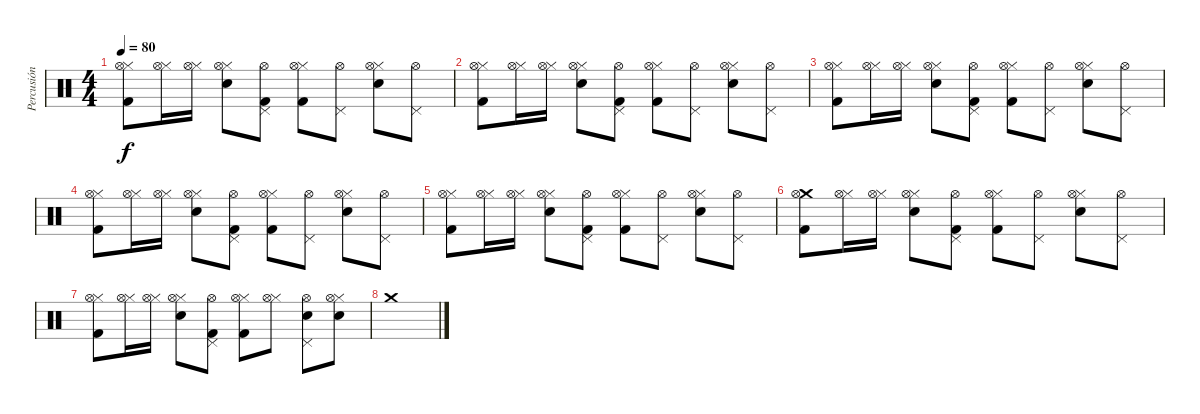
\track ("Percusión" "Percusión") {instrument percussion}
\staff {score}
\articulation defaults
\ts (4 4)
\tempo 80
\clef neutral
\ks c
("Hi-Hat (closed)" "Hi-Hat (open)" "Kick (hit) 2").8{dy f} ("Hi-Hat (closed)" "Hi-Hat (open)").16 ("Hi-Hat (closed)" "Hi-Hat (open)").16 ("Hi-Hat (closed)" "Hi-Hat (open)" "Snare (hit) 2").8 ("Pedal Hi-Hat (hit)" "Hi-Hat (open)" "Kick (hit) 2").8 ("Hi-Hat (closed)" "Hi-Hat (open)" "Kick (hit) 2").8 ("Pedal Hi-Hat (hit)" "Hi-Hat (open)").8 ("Hi-Hat (closed)" "Hi-Hat (open)" "Snare (hit) 2").8 ("Pedal Hi-Hat (hit)" "Hi-Hat (open)").8 |
("Hi-Hat (closed)" "Hi-Hat (open)" "Kick (hit) 2").8 ("Hi-Hat (closed)" "Hi-Hat (open)").16 ("Hi-Hat (closed)" "Hi-Hat (open)").16 ("Hi-Hat (closed)" "Hi-Hat (open)" "Snare (hit) 2").8 ("Pedal Hi-Hat (hit)" "Hi-Hat (open)" "Kick (hit) 2").8 ("Hi-Hat (closed)" "Hi-Hat (open)" "Kick (hit) 2").8 ("Pedal Hi-Hat (hit)" "Hi-Hat (open)").8 ("Hi-Hat (closed)" "Hi-Hat (open)" "Snare (hit) 2").8 ("Pedal Hi-Hat (hit)" "Hi-Hat (open)").8 |
("Hi-Hat (closed)" "Hi-Hat (open)" "Kick (hit) 2").8 ("Hi-Hat (closed)" "Hi-Hat (open)").16 ("Hi-Hat (closed)" "Hi-Hat (open)").16 ("Hi-Hat (closed)" "Hi-Hat (open)" "Snare (hit) 2").8 ("Pedal Hi-Hat (hit)" "Hi-Hat (open)" "Kick (hit) 2").8 ("Hi-Hat (closed)" "Hi-Hat (open)" "Kick (hit) 2").8 ("Pedal Hi-Hat (hit)" "Hi-Hat (open)").8 ("Hi-Hat (closed)" "Hi-Hat (open)" "Snare (hit) 2").8 ("Pedal Hi-Hat (hit)" "Hi-Hat (open)").8 |
("Hi-Hat (closed)" "Hi-Hat (open)" "Kick (hit) 2").8 ("Hi-Hat (closed)" "Hi-Hat (open)").16 ("Hi-Hat (closed)" "Hi-Hat (open)").16 ("Hi-Hat (closed)" "Hi-Hat (open)" "Snare (hit) 2").8 ("Pedal Hi-Hat (hit)" "Hi-Hat (open)" "Kick (hit) 2").8 ("Hi-Hat (closed)" "Hi-Hat (open)" "Kick (hit) 2").8 ("Pedal Hi-Hat (hit)" "Hi-Hat (open)").8 ("Hi-Hat (closed)" "Hi-Hat (open)" "Snare (hit) 2").8 ("Pedal Hi-Hat (hit)" "Hi-Hat (open)").8 |
("Hi-Hat (closed)" "Hi-Hat (open)" "Kick (hit) 2").8 ("Hi-Hat (closed)" "Hi-Hat (open)").16 ("Hi-Hat (closed)" "Hi-Hat (open)").16 ("Hi-Hat (closed)" "Hi-Hat (open)" "Snare (hit) 2").8 ("Pedal Hi-Hat (hit)" "Hi-Hat (open)" "Kick (hit) 2").8 ("Hi-Hat (closed)" "Hi-Hat (open)" "Kick (hit) 2").8 ("Pedal Hi-Hat (hit)" "Hi-Hat (open)").8 ("Hi-Hat (closed)" "Hi-Hat (open)" "Snare (hit) 2").8 ("Pedal Hi-Hat (hit)" "Hi-Hat (open)").8 |
("Crash medium (hit)" "Hi-Hat (open)" "Kick (hit) 2").8 ("Hi-Hat (closed)" "Hi-Hat (open)").16 ("Hi-Hat (closed)" "Hi-Hat (open)").16 ("Hi-Hat (closed)" "Hi-Hat (open)" "Snare (hit) 2").8 ("Pedal Hi-Hat (hit)" "Hi-Hat (open)" "Kick (hit) 2").8 ("Hi-Hat (closed)" "Hi-Hat (open)" "Kick (hit) 2").8 ("Pedal Hi-Hat (hit)" "Hi-Hat (open)").8 ("Hi-Hat (closed)" "Hi-Hat (open)" "Snare (hit) 2").8 ("Pedal Hi-Hat (hit)" "Hi-Hat (open)").8 |
("Hi-Hat (closed)" "Hi-Hat (open)" "Kick (hit) 2").8 ("Hi-Hat (closed)" "Hi-Hat (open)").16 ("Hi-Hat (closed)" "Hi-Hat (open)").16 ("Hi-Hat (closed)" "Hi-Hat (open)" "Snare (hit) 2").8 ("Pedal Hi-Hat (hit)" "Hi-Hat (open)" "Kick (hit) 2").8 ("Hi-Hat (closed)" "Hi-Hat (open)" "Kick (hit) 2").8 ("Hi-Hat (closed)" "Hi-Hat (open)").8 ("Pedal Hi-Hat (hit)" "Hi-Hat (open)" "Snare (hit) 2").8 ("Hi-Hat (closed)" "Hi-Hat (open)" "Snare (hit) 2").8 |
"Crash medium (hit)".1
